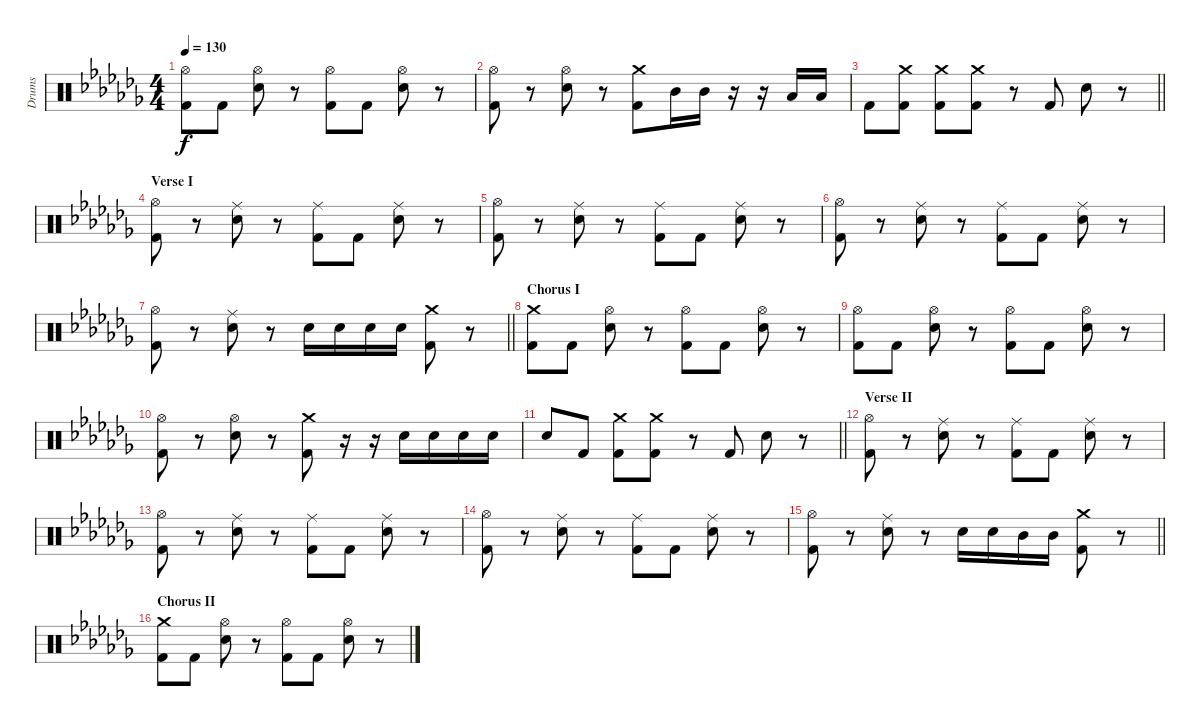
\track ("Drums" "Drums") {instrument percussion}
\staff {score}
\articulation defaults
\ts (4 4)
\tempo 130
\clef neutral
\ks cb
("Hi-Hat (open)" "Kick (hit) 2").8{dy f} "Kick (hit) 2".8 ("Hi-Hat (open)" "Snare (hit) 2").8 r.8 ("Hi-Hat (open)" "Kick (hit) 2").8 "Kick (hit) 2".8 ("Hi-Hat (open)" "Snare (hit) 2").8 r.8 |
("Hi-Hat (open)" "Kick (hit) 2").8 r.8 ("Hi-Hat (open)" "Snare (hit) 2").8 r.8 ("Crash medium (hit)" "Kick (hit) 2").8 "Mid Tom (hit)".16 "Mid Tom (hit)".16 r.16 r.16 "Low Tom (hit)".16 "Low Tom (hit)".16 |
\barLineRight lightlight "Kick (hit) 2".8
("Crash medium (hit)" "Kick (hit) 2").8 ("Crash medium (hit)" "Kick (hit) 2").8 ("Crash medium (hit)" "Kick (hit) 2").8 r.8 "Kick (hit) 2".8 "Snare (hit) 2".8 r.8 |
\section ("" "Verse I")
("Hi-Hat (open)" "Kick (hit) 2").8 r.8 ("Ride (middle)" "Snare (hit) 2").8 r.8 ("Ride (middle)" "Kick (hit) 2").8 "Kick (hit) 2".8 ("Ride (middle)" "Snare (hit) 2").8 r.8 |
("Hi-Hat (open)" "Kick (hit) 2").8 r.8 ("Ride (middle)" "Snare (hit) 2").8 r.8 ("Ride (middle)" "Kick (hit) 2").8 "Kick (hit) 2".8 ("Ride (middle)" "Snare (hit) 2").8 r.8 |
("Hi-Hat (open)" "Kick (hit) 2").8 r.8 ("Ride (middle)" "Snare (hit) 2").8 r.8 ("Ride (middle)" "Kick (hit) 2").8 "Kick (hit) 2".8 ("Ride (middle)" "Snare (hit) 2").8 r.8 |
\barLineRight lightlight
("Hi-Hat (open)" "Kick (hit) 2").8 r.8 ("Ride (middle)" "Snare (hit) 2").8 r.8 "Snare (hit) 2".16 "Snare (hit) 2".16 "Snare (hit) 2".16 "Snare (hit) 2".16 ("Crash medium (hit)" "Kick (hit) 2").8 r.8 |
\section ("" "Chorus I")
("Crash medium (hit)" "Kick (hit) 2").8 "Kick (hit) 2".8 ("Hi-Hat (open)" "Snare (hit) 2").8 r.8 ("Hi-Hat (open)" "Kick (hit) 2").8 "Kick (hit) 2".8 ("Hi-Hat (open)" "Snare (hit) 2").8 r.8 |
("Hi-Hat (open)" "Kick (hit) 2").8 "Kick (hit) 2".8 ("Hi-Hat (open)" "Snare (hit) 2").8 r.8 ("Hi-Hat (open)" "Kick (hit) 2").8 "Kick (hit) 2".8 ("Hi-Hat (open)" "Snare (hit) 2").8 r.8 |
("Hi-Hat (open)" "Kick (hit) 2").8 r.8 ("Hi-Hat (open)" "Snare (hit) 2").8 r.8 ("Crash medium (hit)" "Kick (hit) 2").8 r.16 r.16 "Snare (hit) 2".16 "Snare (hit) 2".16 "Snare (hit) 2".16 "Snare (hit) 2".16 |
\barLineRight lightlight "Snare (hit) 2".8 "Kick (hit) 2".8
("Crash medium (hit)" "Kick (hit) 2").8 ("Crash medium (hit)" "Kick (hit) 2").8 r.8 "Kick (hit) 2".8 "Snare (hit) 2".8 r.8 |
\section ("" "Verse II")
("Hi-Hat (open)" "Kick (hit) 2").8 r.8 ("Ride (middle)" "Snare (hit) 2").8 r.8 ("Ride (middle)" "Kick (hit) 2").8 "Kick (hit) 2".8 ("Ride (middle)" "Snare (hit) 2").8 r.8 |
("Hi-Hat (open)" "Kick (hit) 2").8 r.8 ("Ride (middle)" "Snare (hit) 2").8 r.8 ("Ride (middle)" "Kick (hit) 2").8 "Kick (hit) 2".8 ("Ride (middle)" "Snare (hit) 2").8 r.8 |
("Hi-Hat (open)" "Kick (hit) 2").8 r.8 ("Ride (middle)" "Snare (hit) 2").8 r.8 ("Ride (middle)" "Kick (hit) 2").8 "Kick (hit) 2".8 ("Ride (middle)" "Snare (hit) 2").8 r.8 |
\barLineRight lightlight
("Hi-Hat (open)" "Kick (hit) 2").8 r.8 ("Ride (middle)" "Snare (hit) 2").8 r.8 "Snare (hit) 2".16 "Snare (hit) 2".16 "Mid Tom (hit)".16 "Mid Tom (hit)".16 ("Crash medium (hit)" "Kick (hit) 2").8 r.8 |
\section ("" "Chorus II")
("Crash medium (hit)" "Kick (hit) 2").8 "Kick (hit) 2".8 ("Hi-Hat (open)" "Snare (hit) 2").8 r.8 ("Hi-Hat (open)" "Kick (hit) 2").8 "Kick (hit) 2".8 ("Hi-Hat (open)" "Snare (hit) 2").8 r.8
